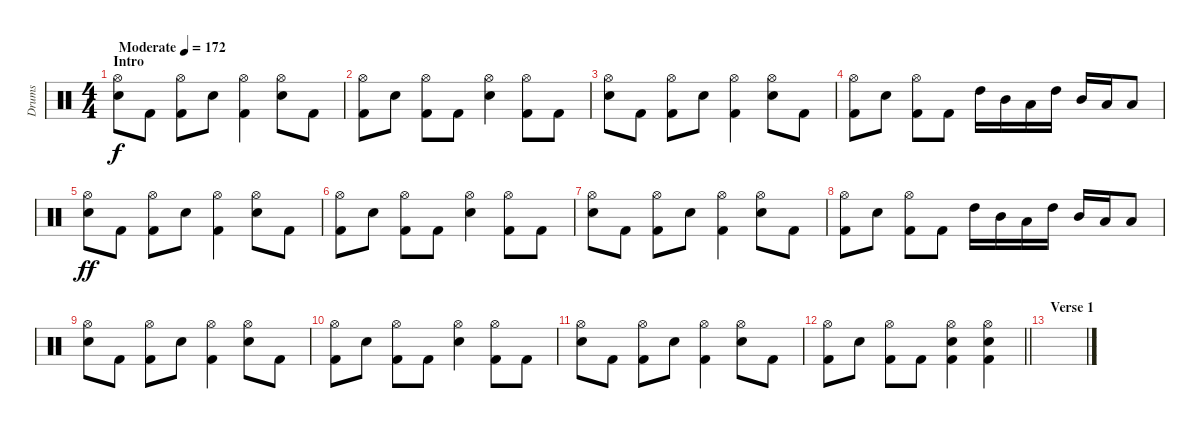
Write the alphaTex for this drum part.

\track ("Drums" "Drums") {instrument percussion}
\staff {score}
\articulation defaults
\ts (4 4)
\section ("" "Intro")
\tempo (172 "Moderate")
\clef neutral
\ks c
("Hi-Hat (open)" "Snare (hit) 2").8{dy f} "Kick (hit) 2".8 ("Hi-Hat (open)" "Kick (hit) 2").8 "Snare (hit) 2".8 ("Hi-Hat (open)" "Kick (hit) 2").4 ("Hi-Hat (open)" "Snare (hit) 2").8 "Kick (hit) 2".8 |
("Hi-Hat (open)" "Kick (hit) 2").8 "Snare (hit) 2".8 ("Hi-Hat (open)" "Kick (hit) 2").8 "Kick (hit) 2".8 ("Hi-Hat (open)" "Snare (hit) 2").4 ("Hi-Hat (open)" "Kick (hit) 2").8 "Kick (hit) 2".8 |
("Hi-Hat (open)" "Snare (hit) 2").8 "Kick (hit) 2".8 ("Hi-Hat (open)" "Kick (hit) 2").8 "Snare (hit) 2".8 ("Hi-Hat (open)" "Kick (hit) 2").4 ("Hi-Hat (open)" "Snare (hit) 2").8 "Kick (hit) 2".8 |
("Hi-Hat (open)" "Kick (hit) 2").8 "Snare (hit) 2".8 ("Hi-Hat (open)" "Kick (hit) 2").8 "Kick (hit) 2".8 "High Tom (hit)".16 "Mid Tom (hit)".16 "Low Tom (hit)".16 "High Tom (hit)".16 "Mid Tom (hit)".16 "Low Tom (hit)".16 "Low Floor Tom (hit)".8 |
("Hi-Hat (open)" "Snare (hit) 2").8{dy ff} "Kick (hit) 2".8 ("Hi-Hat (open)" "Kick (hit) 2").8 "Snare (hit) 2".8 ("Hi-Hat (open)" "Kick (hit) 2").4 ("Hi-Hat (open)" "Snare (hit) 2").8 "Kick (hit) 2".8 |
("Hi-Hat (open)" "Kick (hit) 2").8 "Snare (hit) 2".8 ("Hi-Hat (open)" "Kick (hit) 2").8 "Kick (hit) 2".8 ("Hi-Hat (open)" "Snare (hit) 2").4 ("Hi-Hat (open)" "Kick (hit) 2").8 "Kick (hit) 2".8 |
("Hi-Hat (open)" "Snare (hit) 2").8 "Kick (hit) 2".8 ("Hi-Hat (open)" "Kick (hit) 2").8 "Snare (hit) 2".8 ("Hi-Hat (open)" "Kick (hit) 2").4 ("Hi-Hat (open)" "Snare (hit) 2").8 "Kick (hit) 2".8 |
("Hi-Hat (open)" "Kick (hit) 2").8 "Snare (hit) 2".8 ("Hi-Hat (open)" "Kick (hit) 2").8 "Kick (hit) 2".8 "High Tom (hit)".16 "Mid Tom (hit)".16 "Low Tom (hit)".16 "High Tom (hit)".16 "Mid Tom (hit)".16 "Low Tom (hit)".16 "Low Floor Tom (hit)".8 |
("Hi-Hat (open)" "Snare (hit) 2").8 "Kick (hit) 2".8 ("Hi-Hat (open)" "Kick (hit) 2").8 "Snare (hit) 2".8 ("Hi-Hat (open)" "Kick (hit) 2").4 ("Hi-Hat (open)" "Snare (hit) 2").8 "Kick (hit) 2".8 |
("Hi-Hat (open)" "Kick (hit) 2").8 "Snare (hit) 2".8 ("Hi-Hat (open)" "Kick (hit) 2").8 "Kick (hit) 2".8 ("Hi-Hat (open)" "Snare (hit) 2").4 ("Hi-Hat (open)" "Kick (hit) 2").8 "Kick (hit) 2".8 |
("Hi-Hat (open)" "Snare (hit) 2").8 "Kick (hit) 2".8 ("Hi-Hat (open)" "Kick (hit) 2").8 "Snare (hit) 2".8 ("Hi-Hat (open)" "Kick (hit) 2").4 ("Hi-Hat (open)" "Snare (hit) 2").8 "Kick (hit) 2".8 |
\barLineRight lightlight
("Hi-Hat (open)" "Kick (hit) 2").8 "Snare (hit) 2".8 ("Hi-Hat (open)" "Kick (hit) 2").8 "Kick (hit) 2".8 ("Hi-Hat (open)" "Snare (hit) 2" "Kick (hit) 2").4 ("Hi-Hat (open)" "Snare (hit) 2" "Kick (hit) 2").4 |
\section ("" "Verse 1")
